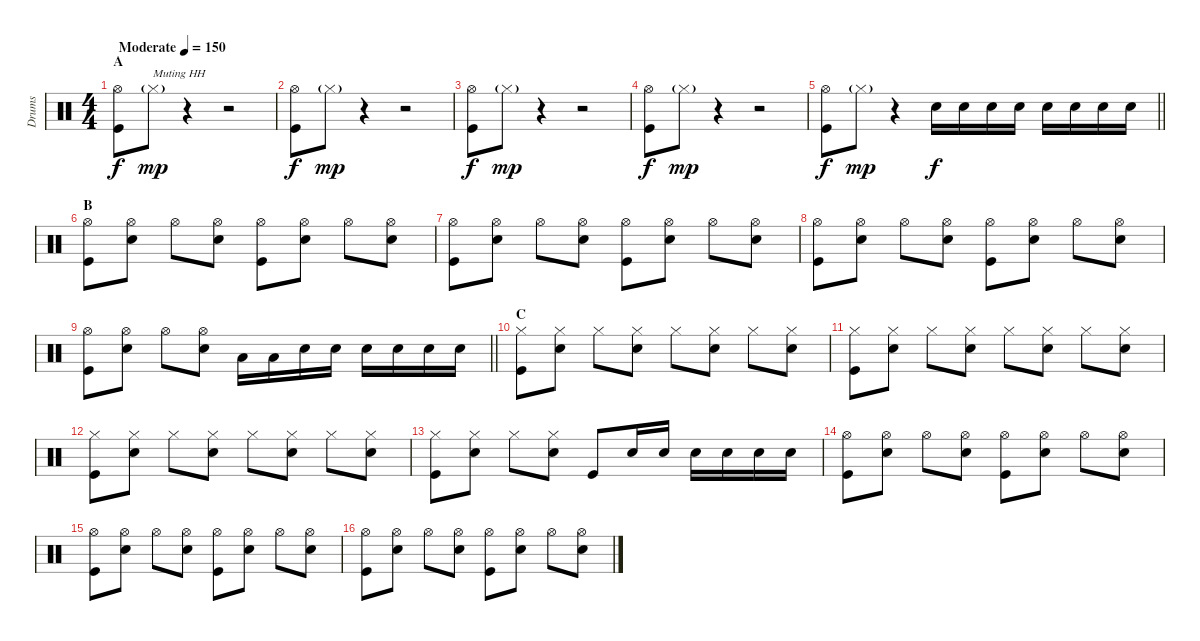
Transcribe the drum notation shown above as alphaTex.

\track ("Drums" "Drums") {instrument percussion}
\staff {score}
\articulation defaults
\ts (4 4)
\section ("" "A")
\tempo (150 "Moderate")
\clef neutral
\ks c
("Hi-Hat (open)" "Kick (hit)").8{dy f} "Hi-Hat (closed)"{g}.8{txt "Muting HH" dy mp} r.4 r.2 |
("Hi-Hat (open)" "Kick (hit)").8{dy f} "Hi-Hat (closed)"{g}.8{dy mp} r.4 r.2 |
("Hi-Hat (open)" "Kick (hit)").8{dy f} "Hi-Hat (closed)"{g}.8{dy mp} r.4 r.2 |
("Hi-Hat (open)" "Kick (hit)").8{dy f} "Hi-Hat (closed)"{g}.8{dy mp} r.4 r.2 |
\barLineRight lightlight
("Hi-Hat (open)" "Kick (hit)").8{dy f} "Hi-Hat (closed)"{g}.8{dy mp} r.4 "Snare (hit) 2".16{dy f} "Snare (hit) 2".16 "Snare (hit) 2".16 "Snare (hit) 2".16 "Snare (hit) 2".16 "Snare (hit) 2".16 "Snare (hit) 2".16 "Snare (hit) 2".16 |
\section ("" "B")
("Hi-Hat (open)" "Kick (hit)").8 ("Hi-Hat (open)" "Snare (hit) 2").8 "Hi-Hat (open)".8 ("Hi-Hat (open)" "Snare (hit) 2").8 ("Hi-Hat (open)" "Kick (hit)").8 ("Hi-Hat (open)" "Snare (hit) 2").8 "Hi-Hat (open)".8 ("Hi-Hat (open)" "Snare (hit) 2").8 |
("Hi-Hat (open)" "Kick (hit)").8 ("Hi-Hat (open)" "Snare (hit) 2").8 "Hi-Hat (open)".8 ("Hi-Hat (open)" "Snare (hit) 2").8 ("Hi-Hat (open)" "Kick (hit)").8 ("Hi-Hat (open)" "Snare (hit) 2").8 "Hi-Hat (open)".8 ("Hi-Hat (open)" "Snare (hit) 2").8 |
("Hi-Hat (open)" "Kick (hit)").8 ("Hi-Hat (open)" "Snare (hit) 2").8 "Hi-Hat (open)".8 ("Hi-Hat (open)" "Snare (hit) 2").8 ("Hi-Hat (open)" "Kick (hit)").8 ("Hi-Hat (open)" "Snare (hit) 2").8 "Hi-Hat (open)".8 ("Hi-Hat (open)" "Snare (hit) 2").8 |
\barLineRight lightlight
("Hi-Hat (open)" "Kick (hit)").8 ("Hi-Hat (open)" "Snare (hit) 2").8 "Hi-Hat (open)".8 ("Hi-Hat (open)" "Snare (hit) 2").8 "Low Tom (hit)".16 "Low Tom (hit)".16 "Snare (hit) 2".16 "Snare (hit) 2".16 "Snare (hit) 2".16 "Snare (hit) 2".16 "Snare (hit) 2".16 "Snare (hit) 2".16 |
\section ("" "C")
("Hi-Hat (closed)" "Kick (hit)").8 ("Hi-Hat (closed)" "Snare (hit) 2").8 "Hi-Hat (closed)".8 ("Hi-Hat (closed)" "Snare (hit) 2").8 "Hi-Hat (closed)".8 ("Hi-Hat (closed)" "Snare (hit) 2").8 "Hi-Hat (closed)".8 ("Hi-Hat (closed)" "Snare (hit) 2").8 |
("Hi-Hat (closed)" "Kick (hit)").8 ("Hi-Hat (closed)" "Snare (hit) 2").8 "Hi-Hat (closed)".8 ("Hi-Hat (closed)" "Snare (hit) 2").8 "Hi-Hat (closed)".8 ("Hi-Hat (closed)" "Snare (hit) 2").8 "Hi-Hat (closed)".8 ("Hi-Hat (closed)" "Snare (hit) 2").8 |
("Hi-Hat (closed)" "Kick (hit)").8 ("Hi-Hat (closed)" "Snare (hit) 2").8 "Hi-Hat (closed)".8 ("Hi-Hat (closed)" "Snare (hit) 2").8 "Hi-Hat (closed)".8 ("Hi-Hat (closed)" "Snare (hit) 2").8 "Hi-Hat (closed)".8 ("Hi-Hat (closed)" "Snare (hit) 2").8 |
("Hi-Hat (closed)" "Kick (hit)").8 ("Hi-Hat (closed)" "Snare (hit) 2").8 "Hi-Hat (closed)".8 ("Hi-Hat (closed)" "Snare (hit) 2").8 "Kick (hit)".8 "Snare (hit) 2".16 "Snare (hit) 2".16 "Snare (hit) 2".16 "Snare (hit) 2".16 "Snare (hit) 2".16 "Snare (hit) 2".16 |
("Hi-Hat (open)" "Kick (hit)").8 ("Hi-Hat (open)" "Snare (hit) 2").8 "Hi-Hat (open)".8 ("Hi-Hat (open)" "Snare (hit) 2").8 ("Hi-Hat (open)" "Kick (hit)").8 ("Hi-Hat (open)" "Snare (hit) 2").8 "Hi-Hat (open)".8 ("Hi-Hat (open)" "Snare (hit) 2").8 |
("Hi-Hat (open)" "Kick (hit)").8 ("Hi-Hat (open)" "Snare (hit) 2").8 "Hi-Hat (open)".8 ("Hi-Hat (open)" "Snare (hit) 2").8 ("Hi-Hat (open)" "Kick (hit)").8 ("Hi-Hat (open)" "Snare (hit) 2").8 "Hi-Hat (open)".8 ("Hi-Hat (open)" "Snare (hit) 2").8 |
("Hi-Hat (open)" "Kick (hit)").8 ("Hi-Hat (open)" "Snare (hit) 2").8 "Hi-Hat (open)".8 ("Hi-Hat (open)" "Snare (hit) 2").8 ("Hi-Hat (open)" "Kick (hit)").8 ("Hi-Hat (open)" "Snare (hit) 2").8 "Hi-Hat (open)".8 ("Hi-Hat (open)" "Snare (hit) 2").8
